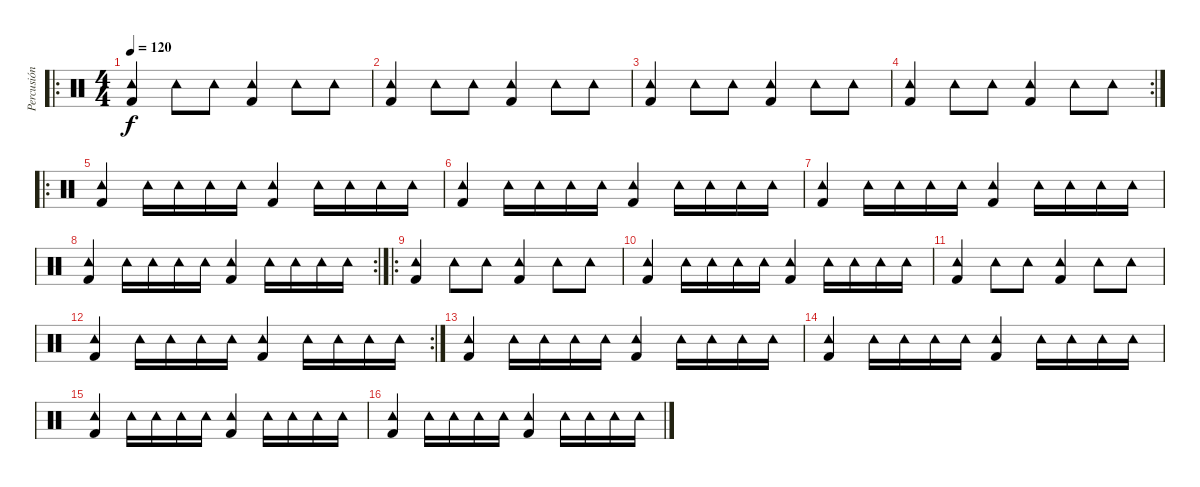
\track ("Percusión" "Percusión") {instrument percussion}
\staff {score}
\articulation defaults
\ro
\ts (4 4)
\tempo 120
\clef neutral
\ks c
("Kick (hit) 2" "Tambourine (hit)").4{dy f} "Tambourine (hit)".8 "Tambourine (hit)".8 ("Kick (hit) 2" "Tambourine (hit)").4 "Tambourine (hit)".8 "Tambourine (hit)".8 |
("Kick (hit) 2" "Tambourine (hit)").4 "Tambourine (hit)".8 "Tambourine (hit)".8 ("Kick (hit) 2" "Tambourine (hit)").4 "Tambourine (hit)".8 "Tambourine (hit)".8 |
("Kick (hit) 2" "Tambourine (hit)").4 "Tambourine (hit)".8 "Tambourine (hit)".8 ("Kick (hit) 2" "Tambourine (hit)").4 "Tambourine (hit)".8 "Tambourine (hit)".8 |
\rc 2
("Kick (hit) 2" "Tambourine (hit)").4 "Tambourine (hit)".8 "Tambourine (hit)".8 ("Kick (hit) 2" "Tambourine (hit)").4 "Tambourine (hit)".8 "Tambourine (hit)".8 |
\ro
("Kick (hit) 2" "Tambourine (hit)").4 "Tambourine (hit)".16 "Tambourine (hit)".16 "Tambourine (hit)".16 "Tambourine (hit)".16 ("Kick (hit) 2" "Tambourine (hit)").4 "Tambourine (hit)".16 "Tambourine (hit)".16 "Tambourine (hit)".16 "Tambourine (hit)".16 |
("Kick (hit) 2" "Tambourine (hit)").4 "Tambourine (hit)".16 "Tambourine (hit)".16 "Tambourine (hit)".16 "Tambourine (hit)".16 ("Kick (hit) 2" "Tambourine (hit)").4 "Tambourine (hit)".16 "Tambourine (hit)".16 "Tambourine (hit)".16 "Tambourine (hit)".16 |
("Kick (hit) 2" "Tambourine (hit)").4 "Tambourine (hit)".16 "Tambourine (hit)".16 "Tambourine (hit)".16 "Tambourine (hit)".16 ("Kick (hit) 2" "Tambourine (hit)").4 "Tambourine (hit)".16 "Tambourine (hit)".16 "Tambourine (hit)".16 "Tambourine (hit)".16 |
\rc 2
("Kick (hit) 2" "Tambourine (hit)").4 "Tambourine (hit)".16 "Tambourine (hit)".16 "Tambourine (hit)".16 "Tambourine (hit)".16 ("Kick (hit) 2" "Tambourine (hit)").4 "Tambourine (hit)".16 "Tambourine (hit)".16 "Tambourine (hit)".16 "Tambourine (hit)".16 |
\ro
("Kick (hit) 2" "Tambourine (hit)").4 "Tambourine (hit)".8 "Tambourine (hit)".8 ("Kick (hit) 2" "Tambourine (hit)").4 "Tambourine (hit)".8 "Tambourine (hit)".8 |
("Kick (hit) 2" "Tambourine (hit)").4 "Tambourine (hit)".16 "Tambourine (hit)".16 "Tambourine (hit)".16 "Tambourine (hit)".16 ("Kick (hit) 2" "Tambourine (hit)").4 "Tambourine (hit)".16 "Tambourine (hit)".16 "Tambourine (hit)".16 "Tambourine (hit)".16 |
("Kick (hit) 2" "Tambourine (hit)").4 "Tambourine (hit)".8 "Tambourine (hit)".8 ("Kick (hit) 2" "Tambourine (hit)").4 "Tambourine (hit)".8 "Tambourine (hit)".8 |
\rc 2
("Kick (hit) 2" "Tambourine (hit)").4 "Tambourine (hit)".16 "Tambourine (hit)".16 "Tambourine (hit)".16 "Tambourine (hit)".16 ("Kick (hit) 2" "Tambourine (hit)").4 "Tambourine (hit)".16 "Tambourine (hit)".16 "Tambourine (hit)".16 "Tambourine (hit)".16 |
("Kick (hit) 2" "Tambourine (hit)").4 "Tambourine (hit)".16 "Tambourine (hit)".16 "Tambourine (hit)".16 "Tambourine (hit)".16 ("Kick (hit) 2" "Tambourine (hit)").4 "Tambourine (hit)".16 "Tambourine (hit)".16 "Tambourine (hit)".16 "Tambourine (hit)".16 |
("Kick (hit) 2" "Tambourine (hit)").4 "Tambourine (hit)".16 "Tambourine (hit)".16 "Tambourine (hit)".16 "Tambourine (hit)".16 ("Kick (hit) 2" "Tambourine (hit)").4 "Tambourine (hit)".16 "Tambourine (hit)".16 "Tambourine (hit)".16 "Tambourine (hit)".16 |
("Kick (hit) 2" "Tambourine (hit)").4 "Tambourine (hit)".16 "Tambourine (hit)".16 "Tambourine (hit)".16 "Tambourine (hit)".16 ("Kick (hit) 2" "Tambourine (hit)").4 "Tambourine (hit)".16 "Tambourine (hit)".16 "Tambourine (hit)".16 "Tambourine (hit)".16 |
("Kick (hit) 2" "Tambourine (hit)").4 "Tambourine (hit)".16 "Tambourine (hit)".16 "Tambourine (hit)".16 "Tambourine (hit)".16 ("Kick (hit) 2" "Tambourine (hit)").4 "Tambourine (hit)".16 "Tambourine (hit)".16 "Tambourine (hit)".16 "Tambourine (hit)".16
